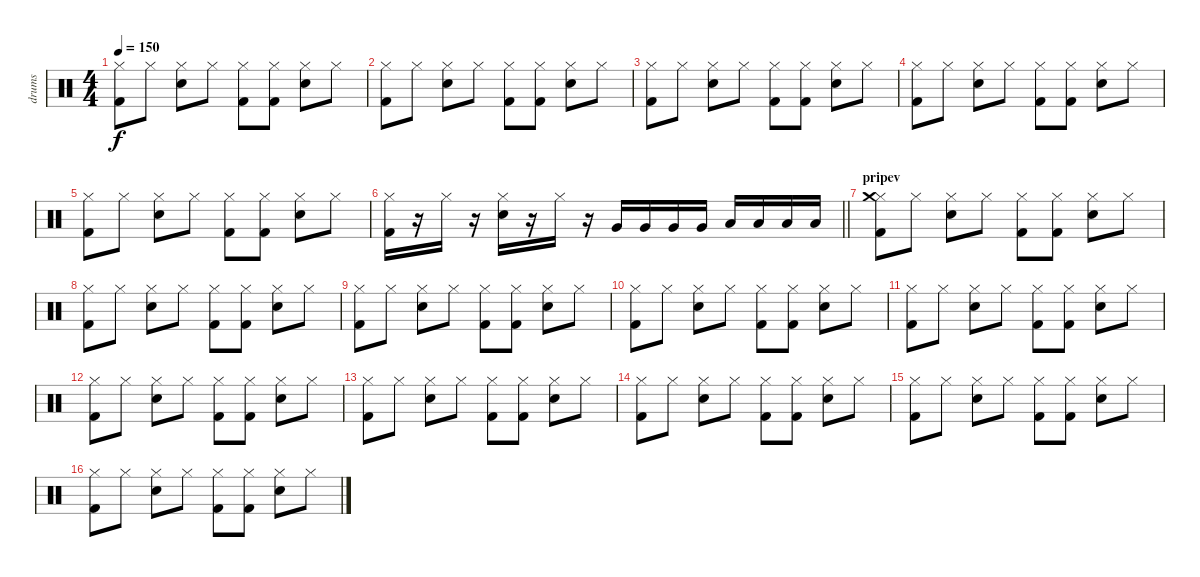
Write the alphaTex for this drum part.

\track ("drums" "drums") {instrument percussion}
\staff {score}
\articulation defaults
\ts (4 4)
\tempo 150
\clef neutral
\ks c
("Kick (hit) 2" "Hi-Hat (closed)").8{dy f} "Hi-Hat (closed)".8 ("Snare (hit) 2" "Hi-Hat (closed)").8 "Hi-Hat (closed)".8 ("Kick (hit) 2" "Hi-Hat (closed)").8 ("Kick (hit) 2" "Hi-Hat (closed)").8 ("Snare (hit) 2" "Hi-Hat (closed)").8 "Hi-Hat (closed)".8 |
("Kick (hit) 2" "Hi-Hat (closed)").8 "Hi-Hat (closed)".8 ("Snare (hit) 2" "Hi-Hat (closed)").8 "Hi-Hat (closed)".8 ("Kick (hit) 2" "Hi-Hat (closed)").8 ("Kick (hit) 2" "Hi-Hat (closed)").8 ("Snare (hit) 2" "Hi-Hat (closed)").8 "Hi-Hat (closed)".8 |
("Kick (hit) 2" "Hi-Hat (closed)").8 "Hi-Hat (closed)".8 ("Snare (hit) 2" "Hi-Hat (closed)").8 "Hi-Hat (closed)".8 ("Kick (hit) 2" "Hi-Hat (closed)").8 ("Kick (hit) 2" "Hi-Hat (closed)").8 ("Snare (hit) 2" "Hi-Hat (closed)").8 "Hi-Hat (closed)".8 |
("Kick (hit) 2" "Hi-Hat (closed)").8 "Hi-Hat (closed)".8 ("Snare (hit) 2" "Hi-Hat (closed)").8 "Hi-Hat (closed)".8 ("Kick (hit) 2" "Hi-Hat (closed)").8 ("Kick (hit) 2" "Hi-Hat (closed)").8 ("Snare (hit) 2" "Hi-Hat (closed)").8 "Hi-Hat (closed)".8 |
("Kick (hit) 2" "Hi-Hat (closed)").8 "Hi-Hat (closed)".8 ("Snare (hit) 2" "Hi-Hat (closed)").8 "Hi-Hat (closed)".8 ("Kick (hit) 2" "Hi-Hat (closed)").8 ("Kick (hit) 2" "Hi-Hat (closed)").8 ("Snare (hit) 2" "Hi-Hat (closed)").8 "Hi-Hat (closed)".8 |
\barLineRight lightlight
("Kick (hit) 2" "Hi-Hat (closed)").16 r.16 "Hi-Hat (closed)".16 r.16 ("Snare (hit) 2" "Hi-Hat (closed)").16 r.16 "Hi-Hat (closed)".16 r.16 "Very Low Tom (hit)".16 "Very Low Tom (hit)".16 "Very Low Tom (hit)".16 "Very Low Tom (hit)".16 "Low Floor Tom (hit)".16 "Low Floor Tom (hit)".16 "Low Floor Tom (hit)".16 "Low Floor Tom (hit)".16 |
\section ("" "pripev")
("Kick (hit) 2" "Hi-Hat (closed)" "Crash medium (hit)").8 "Hi-Hat (closed)".8 ("Snare (hit) 2" "Hi-Hat (closed)").8 "Hi-Hat (closed)".8 ("Kick (hit) 2" "Hi-Hat (closed)").8 ("Kick (hit) 2" "Hi-Hat (closed)").8 ("Snare (hit) 2" "Hi-Hat (closed)").8 "Hi-Hat (closed)".8 |
("Kick (hit) 2" "Hi-Hat (closed)").8 "Hi-Hat (closed)".8 ("Snare (hit) 2" "Hi-Hat (closed)").8 "Hi-Hat (closed)".8 ("Kick (hit) 2" "Hi-Hat (closed)").8 ("Kick (hit) 2" "Hi-Hat (closed)").8 ("Snare (hit) 2" "Hi-Hat (closed)").8 "Hi-Hat (closed)".8 |
("Kick (hit) 2" "Hi-Hat (closed)").8 "Hi-Hat (closed)".8 ("Snare (hit) 2" "Hi-Hat (closed)").8 "Hi-Hat (closed)".8 ("Kick (hit) 2" "Hi-Hat (closed)").8 ("Kick (hit) 2" "Hi-Hat (closed)").8 ("Snare (hit) 2" "Hi-Hat (closed)").8 "Hi-Hat (closed)".8 |
("Kick (hit) 2" "Hi-Hat (closed)").8 "Hi-Hat (closed)".8 ("Snare (hit) 2" "Hi-Hat (closed)").8 "Hi-Hat (closed)".8 ("Kick (hit) 2" "Hi-Hat (closed)").8 ("Kick (hit) 2" "Hi-Hat (closed)").8 ("Snare (hit) 2" "Hi-Hat (closed)").8 "Hi-Hat (closed)".8 |
("Kick (hit) 2" "Hi-Hat (closed)").8 "Hi-Hat (closed)".8 ("Snare (hit) 2" "Hi-Hat (closed)").8 "Hi-Hat (closed)".8 ("Kick (hit) 2" "Hi-Hat (closed)").8 ("Kick (hit) 2" "Hi-Hat (closed)").8 ("Snare (hit) 2" "Hi-Hat (closed)").8 "Hi-Hat (closed)".8 |
("Kick (hit) 2" "Hi-Hat (closed)").8 "Hi-Hat (closed)".8 ("Snare (hit) 2" "Hi-Hat (closed)").8 "Hi-Hat (closed)".8 ("Kick (hit) 2" "Hi-Hat (closed)").8 ("Kick (hit) 2" "Hi-Hat (closed)").8 ("Snare (hit) 2" "Hi-Hat (closed)").8 "Hi-Hat (closed)".8 |
("Kick (hit) 2" "Hi-Hat (closed)").8 "Hi-Hat (closed)".8 ("Snare (hit) 2" "Hi-Hat (closed)").8 "Hi-Hat (closed)".8 ("Kick (hit) 2" "Hi-Hat (closed)").8 ("Kick (hit) 2" "Hi-Hat (closed)").8 ("Snare (hit) 2" "Hi-Hat (closed)").8 "Hi-Hat (closed)".8 |
("Kick (hit) 2" "Hi-Hat (closed)").8 "Hi-Hat (closed)".8 ("Snare (hit) 2" "Hi-Hat (closed)").8 "Hi-Hat (closed)".8 ("Kick (hit) 2" "Hi-Hat (closed)").8 ("Kick (hit) 2" "Hi-Hat (closed)").8 ("Snare (hit) 2" "Hi-Hat (closed)").8 "Hi-Hat (closed)".8 |
("Kick (hit) 2" "Hi-Hat (closed)").8 "Hi-Hat (closed)".8 ("Snare (hit) 2" "Hi-Hat (closed)").8 "Hi-Hat (closed)".8 ("Kick (hit) 2" "Hi-Hat (closed)").8 ("Kick (hit) 2" "Hi-Hat (closed)").8 ("Snare (hit) 2" "Hi-Hat (closed)").8 "Hi-Hat (closed)".8 |
("Kick (hit) 2" "Hi-Hat (closed)").8 "Hi-Hat (closed)".8 ("Snare (hit) 2" "Hi-Hat (closed)").8 "Hi-Hat (closed)".8 ("Kick (hit) 2" "Hi-Hat (closed)").8 ("Kick (hit) 2" "Hi-Hat (closed)").8 ("Snare (hit) 2" "Hi-Hat (closed)").8 "Hi-Hat (closed)".8
